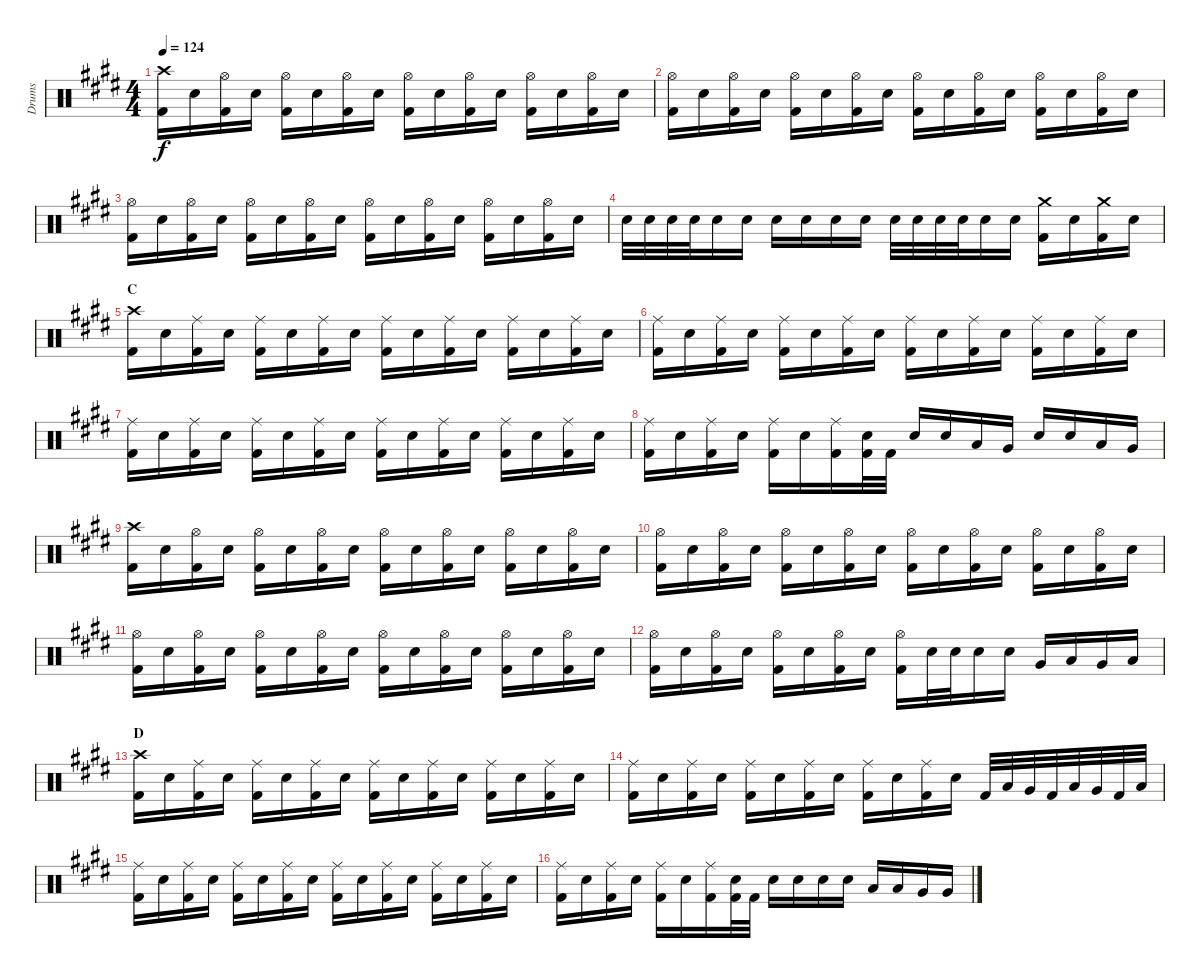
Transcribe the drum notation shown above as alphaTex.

\track ("Drums" "Drums") {instrument percussion}
\staff {score}
\articulation defaults
\ts (4 4)
\tempo 124
\clef neutral
\ks e
("Crash high (hit)" "Kick (hit) 2").16{dy f} "Electric Snare (hit)".16 ("Hi-Hat (open)" "Kick (hit) 2").16 "Electric Snare (hit)".16 ("Hi-Hat (open)" "Kick (hit) 2").16 "Electric Snare (hit)".16 ("Hi-Hat (open)" "Kick (hit) 2").16 "Electric Snare (hit)".16 ("Hi-Hat (open)" "Kick (hit) 2").16 "Electric Snare (hit)".16 ("Hi-Hat (open)" "Kick (hit) 2").16 "Electric Snare (hit)".16 ("Hi-Hat (open)" "Kick (hit) 2").16 "Electric Snare (hit)".16 ("Hi-Hat (open)" "Kick (hit) 2").16 "Electric Snare (hit)".16 |
("Hi-Hat (open)" "Kick (hit) 2").16 "Electric Snare (hit)".16 ("Hi-Hat (open)" "Kick (hit) 2").16 "Electric Snare (hit)".16 ("Hi-Hat (open)" "Kick (hit) 2").16 "Electric Snare (hit)".16 ("Hi-Hat (open)" "Kick (hit) 2").16 "Electric Snare (hit)".16 ("Hi-Hat (open)" "Kick (hit) 2").16 "Electric Snare (hit)".16 ("Hi-Hat (open)" "Kick (hit) 2").16 "Electric Snare (hit)".16 ("Hi-Hat (open)" "Kick (hit) 2").16 "Electric Snare (hit)".16 ("Hi-Hat (open)" "Kick (hit) 2").16 "Electric Snare (hit)".16 |
("Hi-Hat (open)" "Kick (hit) 2").16 "Electric Snare (hit)".16 ("Hi-Hat (open)" "Kick (hit) 2").16 "Electric Snare (hit)".16 ("Hi-Hat (open)" "Kick (hit) 2").16 "Electric Snare (hit)".16 ("Hi-Hat (open)" "Kick (hit) 2").16 "Electric Snare (hit)".16 ("Hi-Hat (open)" "Kick (hit) 2").16 "Electric Snare (hit)".16 ("Hi-Hat (open)" "Kick (hit) 2").16 "Electric Snare (hit)".16 ("Hi-Hat (open)" "Kick (hit) 2").16 "Electric Snare (hit)".16 ("Hi-Hat (open)" "Kick (hit) 2").16 "Electric Snare (hit)".16 |
"Electric Snare (hit)".32 "Electric Snare (hit)".32 "Electric Snare (hit)".32 "Electric Snare (hit)".32 "Electric Snare (hit)".16 "Electric Snare (hit)".16 "Electric Snare (hit)".16 "Electric Snare (hit)".16 "Electric Snare (hit)".16 "Electric Snare (hit)".16 "Electric Snare (hit)".32 "Electric Snare (hit)".32 "Electric Snare (hit)".32 "Electric Snare (hit)".32 "Electric Snare (hit)".16 "Electric Snare (hit)".16 ("Crash medium (hit)" "Kick (hit) 2").16 "Electric Snare (hit)".16 ("Crash medium (hit)" "Kick (hit) 2").16 "Electric Snare (hit)".16 |
\section ("" "C")
("Crash high (hit)" "Kick (hit) 2").16 "Electric Snare (hit)".16 ("Ride (middle)" "Kick (hit) 2").16 "Electric Snare (hit)".16 ("Ride (middle)" "Kick (hit) 2").16 "Electric Snare (hit)".16 ("Ride (middle)" "Kick (hit) 2").16 "Electric Snare (hit)".16 ("Ride (middle)" "Kick (hit) 2").16 "Electric Snare (hit)".16 ("Ride (middle)" "Kick (hit) 2").16 "Electric Snare (hit)".16 ("Ride (middle)" "Kick (hit) 2").16 "Electric Snare (hit)".16 ("Ride (middle)" "Kick (hit) 2").16 "Electric Snare (hit)".16 |
("Ride (middle)" "Kick (hit) 2").16 "Electric Snare (hit)".16 ("Ride (middle)" "Kick (hit) 2").16 "Electric Snare (hit)".16 ("Ride (middle)" "Kick (hit) 2").16 "Electric Snare (hit)".16 ("Ride (middle)" "Kick (hit) 2").16 "Electric Snare (hit)".16 ("Ride (middle)" "Kick (hit) 2").16 "Electric Snare (hit)".16 ("Ride (middle)" "Kick (hit) 2").16 "Electric Snare (hit)".16 ("Ride (middle)" "Kick (hit) 2").16 "Electric Snare (hit)".16 ("Ride (middle)" "Kick (hit) 2").16 "Electric Snare (hit)".16 |
("Ride (middle)" "Kick (hit) 2").16 "Electric Snare (hit)".16 ("Ride (middle)" "Kick (hit) 2").16 "Electric Snare (hit)".16 ("Ride (middle)" "Kick (hit) 2").16 "Electric Snare (hit)".16 ("Ride (middle)" "Kick (hit) 2").16 "Electric Snare (hit)".16 ("Ride (middle)" "Kick (hit) 2").16 "Electric Snare (hit)".16 ("Ride (middle)" "Kick (hit) 2").16 "Electric Snare (hit)".16 ("Ride (middle)" "Kick (hit) 2").16 "Electric Snare (hit)".16 ("Ride (middle)" "Kick (hit) 2").16 "Electric Snare (hit)".16 |
("Ride (middle)" "Kick (hit) 2").16 "Electric Snare (hit)".16 ("Ride (middle)" "Kick (hit) 2").16 "Electric Snare (hit)".16 ("Ride (middle)" "Kick (hit) 2").16 "Electric Snare (hit)".16 ("Ride (middle)" "Kick (hit) 2").16 ("Electric Snare (hit)" "Kick (hit) 2").32 "Kick (hit) 2".32 "Electric Snare (hit)".16 "Electric Snare (hit)".16 "Low Tom (hit)".16 "Very Low Tom (hit)".16 "Electric Snare (hit)".16 "Electric Snare (hit)".16 "Low Tom (hit)".16 "Very Low Tom (hit)".16 |
("Crash high (hit)" "Kick (hit) 2").16 "Electric Snare (hit)".16 ("Hi-Hat (open)" "Kick (hit) 2").16 "Electric Snare (hit)".16 ("Hi-Hat (open)" "Kick (hit) 2").16 "Electric Snare (hit)".16 ("Hi-Hat (open)" "Kick (hit) 2").16 "Electric Snare (hit)".16 ("Hi-Hat (open)" "Kick (hit) 2").16 "Electric Snare (hit)".16 ("Hi-Hat (open)" "Kick (hit) 2").16 "Electric Snare (hit)".16 ("Hi-Hat (open)" "Kick (hit) 2").16 "Electric Snare (hit)".16 ("Hi-Hat (open)" "Kick (hit) 2").16 "Electric Snare (hit)".16 |
("Hi-Hat (open)" "Kick (hit) 2").16 "Electric Snare (hit)".16 ("Hi-Hat (open)" "Kick (hit) 2").16 "Electric Snare (hit)".16 ("Hi-Hat (open)" "Kick (hit) 2").16 "Electric Snare (hit)".16 ("Hi-Hat (open)" "Kick (hit) 2").16 "Electric Snare (hit)".16 ("Hi-Hat (open)" "Kick (hit) 2").16 "Electric Snare (hit)".16 ("Hi-Hat (open)" "Kick (hit) 2").16 "Electric Snare (hit)".16 ("Hi-Hat (open)" "Kick (hit) 2").16 "Electric Snare (hit)".16 ("Hi-Hat (open)" "Kick (hit) 2").16 "Electric Snare (hit)".16 |
("Hi-Hat (open)" "Kick (hit) 2").16 "Electric Snare (hit)".16 ("Hi-Hat (open)" "Kick (hit) 2").16 "Electric Snare (hit)".16 ("Hi-Hat (open)" "Kick (hit) 2").16 "Electric Snare (hit)".16 ("Hi-Hat (open)" "Kick (hit) 2").16 "Electric Snare (hit)".16 ("Hi-Hat (open)" "Kick (hit) 2").16 "Electric Snare (hit)".16 ("Hi-Hat (open)" "Kick (hit) 2").16 "Electric Snare (hit)".16 ("Hi-Hat (open)" "Kick (hit) 2").16 "Electric Snare (hit)".16 ("Hi-Hat (open)" "Kick (hit) 2").16 "Electric Snare (hit)".16 |
("Hi-Hat (open)" "Kick (hit) 2").16 "Electric Snare (hit)".16 ("Hi-Hat (open)" "Kick (hit) 2").16 "Electric Snare (hit)".16 ("Hi-Hat (open)" "Kick (hit) 2").16 "Electric Snare (hit)".16 ("Hi-Hat (open)" "Kick (hit) 2").16 "Electric Snare (hit)".16 ("Hi-Hat (open)" "Kick (hit) 2").16 "Electric Snare (hit)".32 "Electric Snare (hit)".32 "Electric Snare (hit)".16 "Electric Snare (hit)".16 "Very Low Tom (hit)".16 "Low Tom (hit)".16 "Very Low Tom (hit)".16 "Low Tom (hit)".16 |
\section ("" "D")
("Crash high (hit)" "Kick (hit) 2").16 "Electric Snare (hit)".16 ("Ride (middle)" "Kick (hit) 2").16 "Electric Snare (hit)".16 ("Ride (middle)" "Kick (hit) 2").16 "Electric Snare (hit)".16 ("Ride (middle)" "Kick (hit) 2").16 "Electric Snare (hit)".16 ("Ride (middle)" "Kick (hit) 2").16 "Electric Snare (hit)".16 ("Ride (middle)" "Kick (hit) 2").16 "Electric Snare (hit)".16 ("Ride (middle)" "Kick (hit) 2").16 "Electric Snare (hit)".16 ("Ride (middle)" "Kick (hit) 2").16 "Electric Snare (hit)".16 |
("Ride (middle)" "Kick (hit) 2").16 "Electric Snare (hit)".16 ("Ride (middle)" "Kick (hit) 2").16 "Electric Snare (hit)".16 ("Ride (middle)" "Kick (hit) 2").16 "Electric Snare (hit)".16 ("Ride (middle)" "Kick (hit) 2").16 "Electric Snare (hit)".16 ("Ride (middle)" "Kick (hit) 2").16 "Electric Snare (hit)".16 ("Ride (middle)" "Kick (hit) 2").16 "Electric Snare (hit)".16 "Kick (hit) 2".32 "Low Tom (hit)".32 "Very Low Tom (hit)".32 "Kick (hit) 2".32 "Low Tom (hit)".32 "Very Low Tom (hit)".32 "Kick (hit) 2".32 "Low Tom (hit)".32 |
("Ride (middle)" "Kick (hit) 2").16 "Electric Snare (hit)".16 ("Ride (middle)" "Kick (hit) 2").16 "Electric Snare (hit)".16 ("Ride (middle)" "Kick (hit) 2").16 "Electric Snare (hit)".16 ("Ride (middle)" "Kick (hit) 2").16 "Electric Snare (hit)".16 ("Ride (middle)" "Kick (hit) 2").16 "Electric Snare (hit)".16 ("Ride (middle)" "Kick (hit) 2").16 "Electric Snare (hit)".16 ("Ride (middle)" "Kick (hit) 2").16 "Electric Snare (hit)".16 ("Ride (middle)" "Kick (hit) 2").16 "Electric Snare (hit)".16 |
("Ride (middle)" "Kick (hit) 2").16 "Electric Snare (hit)".16 ("Ride (middle)" "Kick (hit) 2").16 "Electric Snare (hit)".16 ("Ride (middle)" "Kick (hit) 2").16 "Electric Snare (hit)".16 ("Ride (middle)" "Kick (hit) 2").16 ("Electric Snare (hit)" "Kick (hit) 2").32 "Kick (hit) 2".32 "Electric Snare (hit)".16 "Electric Snare (hit)".16 "Electric Snare (hit)".16 "Electric Snare (hit)".16 "Low Tom (hit)".16 "Low Tom (hit)".16 "Very Low Tom (hit)".16 "Very Low Tom (hit)".16
